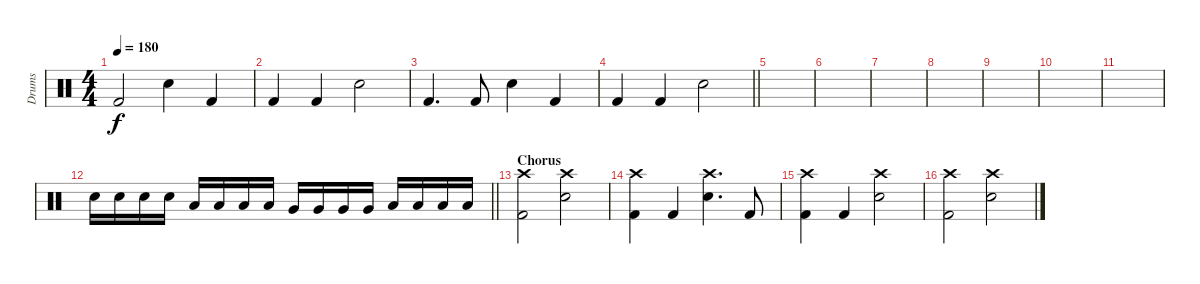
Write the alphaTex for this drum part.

\track ("Drums" "Drums") {instrument percussion}
\staff {score}
\articulation defaults
\ts (4 4)
\tempo 180
\clef neutral
\ks c "Kick (hit) 2".2{dy f} "Electric Snare (hit)".4 "Kick (hit) 2".4
|
"Kick (hit) 2".4 "Kick (hit) 2".4 "Electric Snare (hit)".2 |
"Kick (hit) 2".4{d} "Kick (hit) 2".8 "Electric Snare (hit)".4 "Kick (hit) 2".4 |
\barLineRight lightlight "Kick (hit) 2".4 "Kick (hit) 2".4 "Electric Snare (hit)".2
|
|
|
|
|
|
|
|
\barLineRight lightlight "Electric Snare (hit)".16 "Electric Snare (hit)".16 "Electric Snare (hit)".16 "Electric Snare (hit)".16 "Low Tom (hit)".16 "Low Tom (hit)".16 "Low Tom (hit)".16 "Low Tom (hit)".16 "Very Low Tom (hit)".16 "Very Low Tom (hit)".16 "Very Low Tom (hit)".16 "Very Low Tom (hit)".16 "Low Floor Tom (hit)".16 "Low Floor Tom (hit)".16 "Low Floor Tom (hit)".16 "Low Floor Tom (hit)".16
|
\section ("" "Chorus")
("Kick (hit) 2" "Crash high (hit)").2 ("Crash high (hit)" "Electric Snare (hit)").2 |
("Crash high (hit)" "Kick (hit) 2").4 "Kick (hit) 2".4 ("Crash high (hit)" "Electric Snare (hit)").4{d} "Kick (hit) 2".8 |
("Crash high (hit)" "Kick (hit) 2").4 "Kick (hit) 2".4 ("Crash high (hit)" "Electric Snare (hit)").2 |
("Crash high (hit)" "Kick (hit) 2").2 ("Crash high (hit)" "Electric Snare (hit)").2
